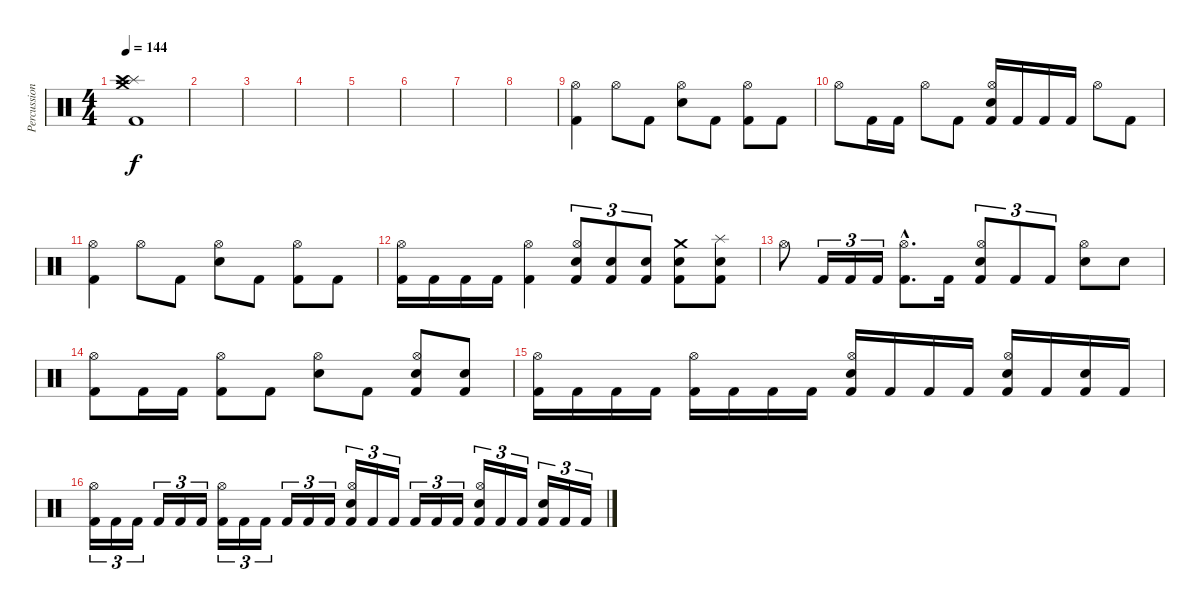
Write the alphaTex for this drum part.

\track ("Percussion" "Percussion") {instrument percussion}
\staff {score}
\articulation defaults
\ts (4 4)
\tempo 144
\clef neutral
\ks c
("Crash medium (hit)" "Splash (hit)" "Crash high (hit)" "Kick (hit) 2").1{dy f} |
|
|
|
|
|
|
|
("Hi-Hat (open)" "Kick (hit) 2").4 "Hi-Hat (open)".8 "Kick (hit) 2".8 ("Hi-Hat (open)" "Electric Snare (hit)").8 "Kick (hit) 2".8 ("Hi-Hat (open)" "Kick (hit) 2").8 "Kick (hit) 2".8 |
"Hi-Hat (open)".8 "Kick (hit) 2".16 "Kick (hit) 2".16 "Hi-Hat (open)".8 "Kick (hit) 2".8 ("Hi-Hat (open)" "Electric Snare (hit)" "Kick (hit) 2").16 "Kick (hit) 2".16 "Kick (hit) 2".16 "Kick (hit) 2".16 "Hi-Hat (open)".8 "Kick (hit) 2".8 |
("Hi-Hat (open)" "Kick (hit) 2").4 "Hi-Hat (open)".8 "Kick (hit) 2".8 ("Hi-Hat (open)" "Electric Snare (hit)").8 "Kick (hit) 2".8 ("Hi-Hat (open)" "Kick (hit) 2").8 "Kick (hit) 2".8 |
("Hi-Hat (open)" "Kick (hit) 2").16 "Kick (hit) 2".16 "Kick (hit) 2".16 "Kick (hit) 2".16 ("Hi-Hat (open)" "Kick (hit) 2").4 ("Hi-Hat (open)" "Electric Snare (hit)" "Kick (hit) 2").8{tu (3 2)} ("Electric Snare (hit)" "Kick (hit) 2").8{tu (3 2)} ("Electric Snare (hit)" "Kick (hit) 2").8{tu (3 2)} ("Crash medium (hit)" "Electric Snare (hit)" "Kick (hit) 2").8 ("Splash (hit)" "Electric Snare (hit)" "Kick (hit) 2").8 |
"Hi-Hat (open)".8 "Kick (hit) 2".16{tu (3 2)} "Kick (hit) 2".16{tu (3 2)} "Kick (hit) 2".16{tu (3 2)} ("Hi-Hat (open)"{hac} "Kick (hit) 2"{hac}).8{d} "Kick (hit) 2".16 ("Hi-Hat (open)" "Electric Snare (hit)" "Kick (hit) 2").8{tu (3 2)} "Kick (hit) 2".8{tu (3 2)} "Kick (hit) 2".8{tu (3 2)} ("Hi-Hat (open)" "Electric Snare (hit)").8 "Electric Snare (hit)".8 |
("Hi-Hat (open)" "Kick (hit) 2").8 "Kick (hit) 2".16 "Kick (hit) 2".16 ("Hi-Hat (open)" "Kick (hit) 2").8 "Kick (hit) 2".8 ("Hi-Hat (open)" "Electric Snare (hit)").8 "Kick (hit) 2".8 ("Hi-Hat (open)" "Electric Snare (hit)" "Kick (hit) 2").8 ("Electric Snare (hit)" "Kick (hit) 2").8 |
("Hi-Hat (open)" "Kick (hit) 2").16 "Kick (hit) 2".16 "Kick (hit) 2".16 "Kick (hit) 2".16 ("Hi-Hat (open)" "Kick (hit) 2").16 "Kick (hit) 2".16 "Kick (hit) 2".16 "Kick (hit) 2".16 ("Hi-Hat (open)" "Electric Snare (hit)" "Kick (hit) 2").16 "Kick (hit) 2".16 "Kick (hit) 2".16 "Kick (hit) 2".16 ("Hi-Hat (open)" "Electric Snare (hit)" "Kick (hit) 2").16 "Kick (hit) 2".16 ("Electric Snare (hit)" "Kick (hit) 2").16 "Kick (hit) 2".16 |
("Hi-Hat (open)" "Kick (hit) 2").16{tu (3 2)} "Kick (hit) 2".16{tu (3 2)} "Kick (hit) 2".16{tu (3 2)} "Kick (hit) 2".16{tu (3 2)} "Kick (hit) 2".16{tu (3 2)} "Kick (hit) 2".16{tu (3 2)} ("Hi-Hat (open)" "Kick (hit) 2").16{tu (3 2)} "Kick (hit) 2".16{tu (3 2)} "Kick (hit) 2".16{tu (3 2)} "Kick (hit) 2".16{tu (3 2)} "Kick (hit) 2".16{tu (3 2)} "Kick (hit) 2".16{tu (3 2)} ("Hi-Hat (open)" "Electric Snare (hit)" "Kick (hit) 2").16{tu (3 2)} "Kick (hit) 2".16{tu (3 2)} "Kick (hit) 2".16{tu (3 2)} "Kick (hit) 2".16{tu (3 2)} "Kick (hit) 2".16{tu (3 2)} "Kick (hit) 2".16{tu (3 2)} ("Hi-Hat (open)" "Electric Snare (hit)" "Kick (hit) 2").16{tu (3 2)} "Kick (hit) 2".16{tu (3 2)} "Kick (hit) 2".16{tu (3 2)} ("Electric Snare (hit)" "Kick (hit) 2").16{tu (3 2)} "Kick (hit) 2".16{tu (3 2)} "Kick (hit) 2".16{tu (3 2)}
